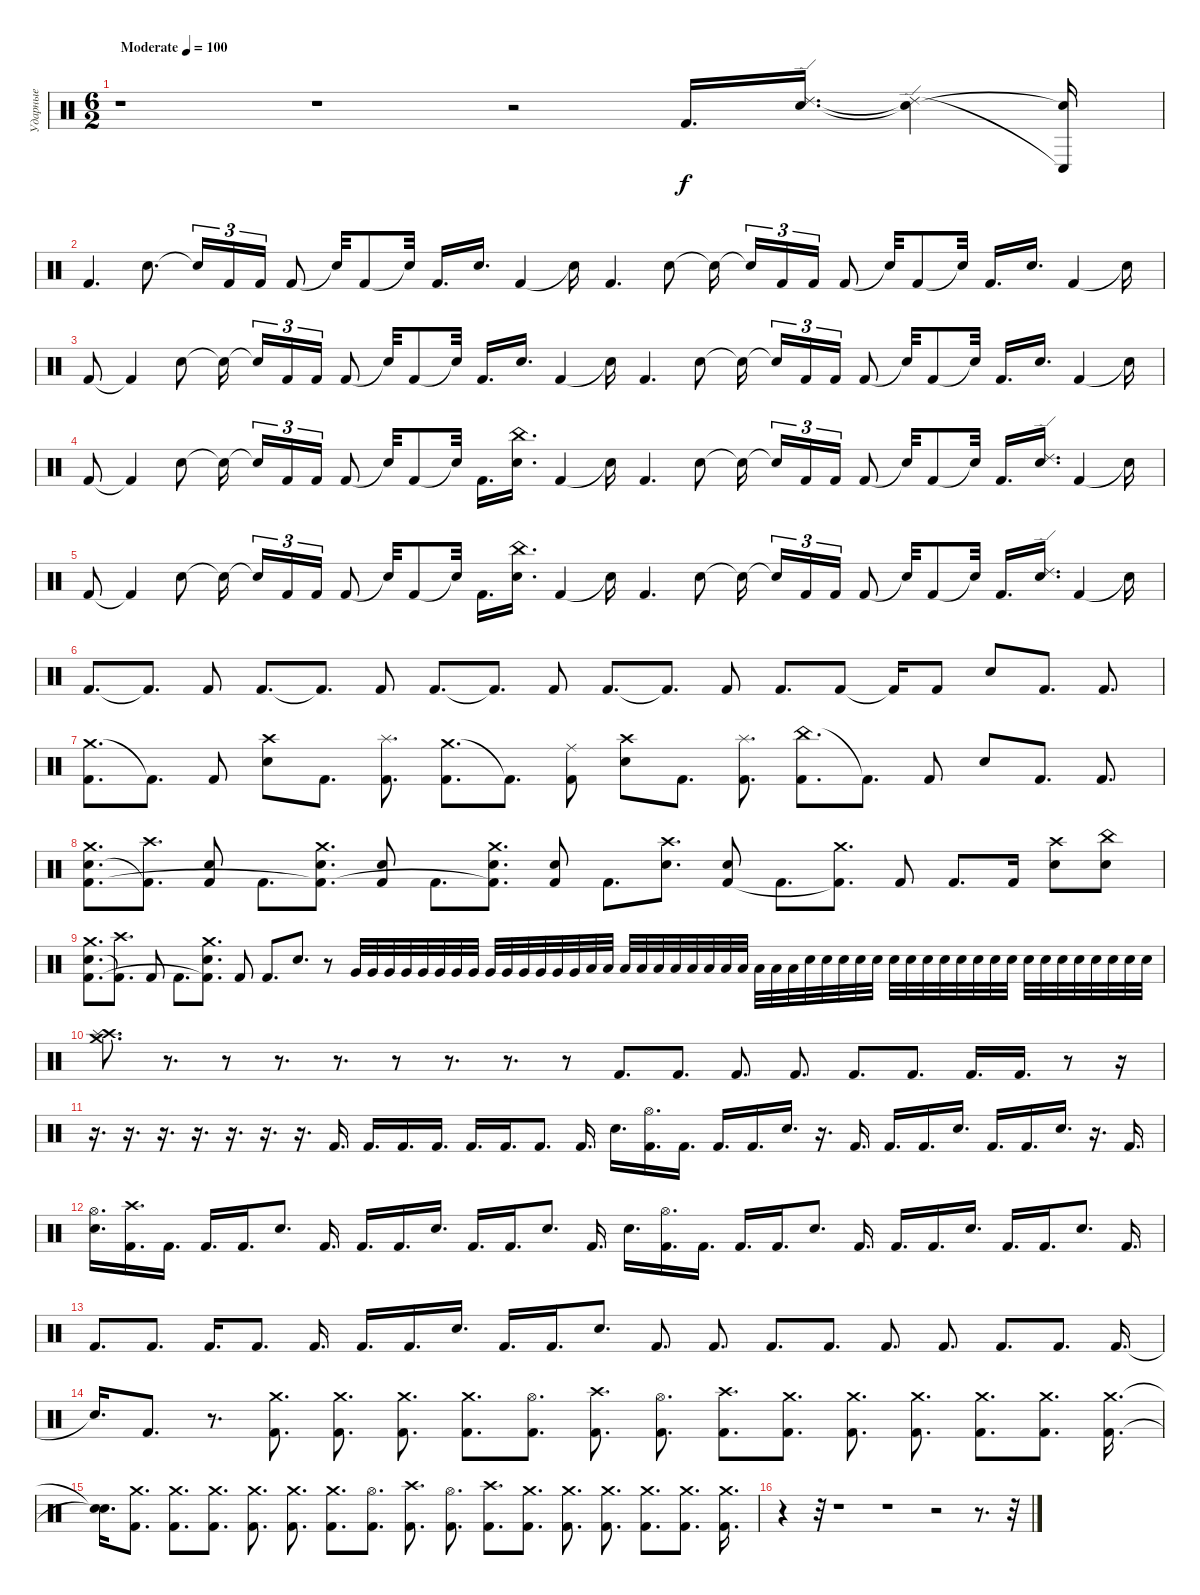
\track ("Ударные" "Ударные") {instrument percussion}
\staff {score}
\articulation defaults
\ts (6 2)
\tempo (100 "Moderate")
\clef neutral
\ks c
r.1{dy f} r.1 r.2 "Kick (hit) 2".16{d} ("Ride (edge) 2" "Snare (hit) 2").16{d} ("Ride (edge) 2"{t} "Snare (hit)"{t}).4 ("Conga low (hit)"{t} "Snare (hit)"{t}).16 |
"Kick (hit) 2".4{d} "Snare (hit) 2".8{d} "Snare (hit)"{t}.16{tu (3 2)} "Kick (hit) 2".16{tu (3 2) beam merge} "Kick (hit) 2".16{tu (3 2)} "Kick (hit) 2".8 "Snare (hit)"{t}.32 "Kick (hit) 2".8 "Snare (hit)"{t}.32 "Kick (hit) 2".16{d} "Snare (hit) 2".16{d} "Kick (hit) 2".4 "Snare (hit)"{t}.16 "Kick (hit) 2".4{d} "Snare (hit) 2".8 "Snare (hit)"{t}.16{beam splitsecondary} "Snare (hit)"{t}.16{tu (3 2)} "Kick (hit) 2".16{tu (3 2) beam merge} "Kick (hit) 2".16{tu (3 2)} "Kick (hit) 2".8 "Snare (hit)"{t}.32 "Kick (hit) 2".8 "Snare (hit)"{t}.32 "Kick (hit) 2".16{d} "Snare (hit) 2".16{d} "Kick (hit) 2".4 "Snare (hit)"{t}.16 |
"Kick (hit) 2".8 "Kick (hit) 2"{t}.4 "Snare (hit) 2".8 "Snare (hit)"{t}.16{beam splitsecondary} "Snare (hit)"{t}.16{tu (3 2)} "Kick (hit) 2".16{tu (3 2) beam merge} "Kick (hit) 2".16{tu (3 2)} "Kick (hit) 2".8 "Snare (hit)"{t}.32 "Kick (hit) 2".8 "Snare (hit)"{t}.32 "Kick (hit) 2".16{d} "Snare (hit) 2".16{d} "Kick (hit) 2".4 "Snare (hit)"{t}.16 "Kick (hit) 2".4{d} "Snare (hit) 2".8 "Snare (hit)"{t}.16{beam splitsecondary} "Snare (hit)"{t}.16{tu (3 2)} "Kick (hit) 2".16{tu (3 2) beam merge} "Kick (hit) 2".16{tu (3 2)} "Kick (hit) 2".8 "Snare (hit)"{t}.32 "Kick (hit) 2".8 "Snare (hit)"{t}.32 "Kick (hit) 2".16{d} "Snare (hit) 2".16{d} "Kick (hit) 2".4 "Snare (hit)"{t}.16 |
"Kick (hit) 2".8 "Kick (hit) 2"{t}.4 "Snare (hit) 2".8 "Snare (hit)"{t}.16{beam splitsecondary} "Snare (hit)"{t}.16{tu (3 2)} "Kick (hit) 2".16{tu (3 2) beam merge} "Kick (hit) 2".16{tu (3 2)} "Kick (hit) 2".8 "Snare (hit)"{t}.32 "Kick (hit) 2".8 "Snare (hit)"{t}.32 "Kick (hit) 2".16{d} ("China (hit)" "Snare (hit) 2").16{d} "Kick (hit) 2".4 "Snare (hit)"{t}.16 "Kick (hit) 2".4{d} "Snare (hit) 2".8 "Snare (hit)"{t}.16{beam splitsecondary} "Snare (hit)"{t}.16{tu (3 2)} "Kick (hit) 2".16{tu (3 2) beam merge} "Kick (hit) 2".16{tu (3 2)} "Kick (hit) 2".8 "Snare (hit)"{t}.32 "Kick (hit) 2".8 "Snare (hit)"{t}.32 "Kick (hit) 2".16{d} ("Ride (edge) 2" "Snare (hit) 2").16{d} "Kick (hit) 2".4 "Snare (hit)"{t}.16 |
"Kick (hit) 2".8 "Kick (hit) 2"{t}.4 "Snare (hit) 2".8 "Snare (hit)"{t}.16{beam splitsecondary} "Snare (hit)"{t}.16{tu (3 2)} "Kick (hit) 2".16{tu (3 2) beam merge} "Kick (hit) 2".16{tu (3 2)} "Kick (hit) 2".8 "Snare (hit)"{t}.32 "Kick (hit) 2".8 "Snare (hit)"{t}.32 "Kick (hit) 2".16{d} ("China (hit)" "Snare (hit) 2").16{d} "Kick (hit) 2".4 "Snare (hit)"{t}.16 "Kick (hit) 2".4{d} "Snare (hit) 2".8 "Snare (hit)"{t}.16{beam splitsecondary} "Snare (hit)"{t}.16{tu (3 2)} "Kick (hit) 2".16{tu (3 2) beam merge} "Kick (hit) 2".16{tu (3 2)} "Kick (hit) 2".8 "Snare (hit)"{t}.32 "Kick (hit) 2".8 "Snare (hit)"{t}.32 "Kick (hit) 2".16{d} ("Ride (edge) 2" "Snare (hit) 2").16{d} "Kick (hit) 2".4 "Snare (hit)"{t}.16 |
"Kick (hit) 2".8{d} "Kick (hit) 2"{t}.8{d} "Kick (hit) 2".8 "Kick (hit) 2".8{d} "Kick (hit) 2"{t}.8{d} "Kick (hit) 2".8 "Kick (hit) 2".8{d} "Kick (hit) 2"{t}.8{d} "Kick (hit) 2".8 "Kick (hit) 2".8{d} "Kick (hit) 2"{t}.8{d} "Kick (hit) 2".8 "Kick (hit) 2".8{d} "Kick (hit) 2".8 "Kick (hit) 2"{t}.16 "Kick (hit) 2".8 "Snare (hit) 2".8 "Kick (hit) 2".8{d} "Kick (hit) 2".8{d} |
("Crash medium (hit)" "Kick (hit) 2").8{d} "Kick (hit) 2"{t}.8{d} "Kick (hit) 2".8 ("Crash high (hit)" "Snare (hit) 2").8 "Kick (hit) 2".8{d} ("Splash (hit)" "Kick (hit) 2").8{d} ("Crash medium (hit)" "Kick (hit) 2").8{d} "Kick (hit) 2"{t}.8{d} ("Ride (middle)" "Kick (hit) 2").8 ("Crash high (hit)" "Snare (hit) 2").8 "Kick (hit) 2".8{d} ("Splash (hit)" "Kick (hit) 2").8{d} ("China (hit)" "Kick (hit) 2").8{d} "Kick (hit) 2"{t}.8{d} "Kick (hit) 2".8 "Snare (hit) 2".8 "Kick (hit) 2".8{d} "Kick (hit) 2".8{d} |
("Crash medium (hit)" "Snare (hit) 2" "Kick (hit) 2").8{d} ("Crash high (hit)" "Kick (hit) 2"{t}).8{d} ("Snare (hit) 2" "Kick (hit) 2").8 "Kick (hit) 2".8{d} ("Crash medium (hit)" "Snare (hit) 2" "Kick (hit) 2"{t}).8{d} ("Snare (hit) 2" "Kick (hit) 2").8 "Kick (hit) 2".8{d} ("Crash medium (hit)" "Snare (hit) 2" "Kick (hit) 2"{t}).8{d} ("Snare (hit) 2" "Kick (hit) 2").8 "Kick (hit) 2".8{d} ("Crash high (hit)" "Snare (hit) 2").8{d} ("Snare (hit) 2" "Kick (hit) 2").8 "Kick (hit) 2".8{d} ("Crash medium (hit)" "Kick (hit) 2"{t}).8{d} "Kick (hit) 2".8 "Kick (hit) 2".8{d} "Kick (hit) 2".16 ("Crash high (hit)" "Electric Snare (hit)").8 ("China (hit)" "Electric Snare (hit)").8 |
("Crash medium (hit)" "Snare (hit) 2" "Kick (hit) 2").8{d} ("Crash high (hit)" "Kick (hit) 2"{t}).8{d} "Kick (hit) 2".8 "Kick (hit) 2".8{d} ("Crash medium (hit)" "Snare (hit) 2" "Kick (hit) 2"{t}).8{d} "Kick (hit) 2".8 "Kick (hit) 2".8{d} "Snare (hit) 2".8{d} r.8 "Very Low Tom (hit)".32 "Very Low Tom (hit)".32 "Very Low Tom (hit)".32 "Very Low Tom (hit)".32 "Very Low Tom (hit)".32 "Very Low Tom (hit)".32 "Very Low Tom (hit)".32 "Very Low Tom (hit)".32 "Very Low Tom (hit)".32 "Very Low Tom (hit)".32 "Very Low Tom (hit)".32 "Very Low Tom (hit)".32 "Very Low Tom (hit)".32 "Very Low Tom (hit)".32 "Low Floor Tom (hit)".32 "Low Floor Tom (hit)".32 "Low Floor Tom (hit)".32 "Low Floor Tom (hit)".32 "Low Floor Tom (hit)".32 "Low Floor Tom (hit)".32 "Low Floor Tom (hit)".32 "Low Floor Tom (hit)".32 "Low Floor Tom (hit)".32 "Low Floor Tom (hit)".32 "Low Floor Tom (hit)".32 "Low Floor Tom (hit)".32 "Low Floor Tom (hit)".32 "Electric Snare (hit)".32 "Electric Snare (hit)".32 "Electric Snare (hit)".32 "Electric Snare (hit)".32 "Electric Snare (hit)".32 "Electric Snare (hit)".32 "Electric Snare (hit)".32 "Electric Snare (hit)".32 "Electric Snare (hit)".32 "Electric Snare (hit)".32 "Electric Snare (hit)".32 "Electric Snare (hit)".32 "Electric Snare (hit)".32 "Electric Snare (hit)".32 "Electric Snare (hit)".32 "Electric Snare (hit)".32 "Electric Snare (hit)".32 "Electric Snare (hit)".32 "Electric Snare (hit)".32 "Electric Snare (hit)".32 "Electric Snare (hit)".32 |
("Crash high (hit)" "Crash medium (hit)" "Splash (hit)").8{d} r.8{d} r.8 r.8{d} r.8{d} r.8 r.8{d} r.8{d} r.8 "Kick (hit) 2".8{d} "Kick (hit) 2".8{d} "Kick (hit) 2".8{d} "Kick (hit) 2".8{d} "Kick (hit) 2".8{d} "Kick (hit) 2".8{d} "Kick (hit) 2".16{d} "Kick (hit) 2".16{d} r.8 r.16 |
r.16{d} r.16{d} r.16{d} r.16{d} r.16{d} r.16{d} r.16{d} "Kick (hit) 2".16{d} "Kick (hit) 2".16{d} "Kick (hit) 2".16{d} "Kick (hit) 2".16{d} "Kick (hit) 2".16{d} "Kick (hit) 2".16{d} "Kick (hit) 2".8{d} "Kick (hit) 2".16{d} "Snare (hit) 2".16{d} ("Hi-Hat (open)" "Kick (hit) 2").16{d} "Kick (hit) 2".16{d} "Kick (hit) 2".16{d} "Kick (hit) 2".16{d} "Snare (hit) 2".16{d} r.16{d} "Kick (hit) 2".16{d} "Kick (hit) 2".16{d} "Kick (hit) 2".16{d} "Snare (hit) 2".16{d} "Kick (hit) 2".16{d} "Kick (hit) 2".16{d} "Snare (hit) 2".16{d} r.16{d} "Kick (hit) 2".16{d} |
("Hi-Hat (open)" "Snare (hit) 2").16{d} ("Crash high (hit)" "Kick (hit) 2").16{d} "Kick (hit) 2".16{d} "Kick (hit) 2".16{d} "Kick (hit) 2".16{d} "Snare (hit) 2".8{d} "Kick (hit) 2".16{d} "Kick (hit) 2".16{d} "Kick (hit) 2".16{d} "Snare (hit) 2".16{d} "Kick (hit) 2".16{d} "Kick (hit) 2".16{d} "Snare (hit) 2".8{d} "Kick (hit) 2".16{d} "Snare (hit) 2".16{d} ("Hi-Hat (open)" "Kick (hit) 2").16{d} "Kick (hit) 2".16{d} "Kick (hit) 2".16{d} "Kick (hit) 2".16{d} "Snare (hit) 2".8{d} "Kick (hit) 2".16{d} "Kick (hit) 2".16{d} "Kick (hit) 2".16{d} "Snare (hit) 2".16{d} "Kick (hit) 2".16{d} "Kick (hit) 2".16{d} "Snare (hit) 2".8{d} "Kick (hit) 2".16{d} |
"Kick (hit) 2".8{d} "Kick (hit) 2".8{d} "Kick (hit) 2".16{d} "Kick (hit) 2".8{d} "Kick (hit) 2".16{d} "Kick (hit) 2".16{d} "Kick (hit) 2".16{d} "Snare (hit) 2".16{d} "Kick (hit) 2".16{d} "Kick (hit) 2".16{d} "Snare (hit) 2".8{d} "Kick (hit) 2".8{d} "Kick (hit) 2".8{d} "Kick (hit) 2".8{d} "Kick (hit) 2".8{d} "Kick (hit) 2".8{d} "Kick (hit) 2".8{d} "Kick (hit) 2".8{d} "Kick (hit) 2".8{d} "Kick (hit) 2".16{d} |
"Snare (hit)"{t}.16{d} "Kick (hit) 2".8{d} r.8{d} ("Crash medium (hit)" "Kick (hit) 2").8{d} ("Crash medium (hit)" "Kick (hit) 2").8{d} ("Crash medium (hit)" "Kick (hit) 2").8{d} ("Crash medium (hit)" "Kick (hit) 2").8{d} ("Hi-Hat (open)" "Kick (hit) 2").8{d} ("Crash high (hit)" "Kick (hit) 2").8{d} ("Hi-Hat (open)" "Kick (hit) 2").8{d} ("Crash high (hit)" "Kick (hit) 2").8{d} ("Crash medium (hit)" "Kick (hit) 2").8{d} ("Crash medium (hit)" "Kick (hit) 2").8{d} ("Crash medium (hit)" "Kick (hit) 2").8{d} ("Crash medium (hit)" "Kick (hit) 2").8{d} ("Crash medium (hit)" "Kick (hit) 2").8{d} ("Crash medium (hit)" "Kick (hit) 2").16{d} |
("Snare (hit)"{t} "Snare (hit)"{t}).16{d} ("Crash medium (hit)" "Kick (hit) 2").8{d} ("Crash medium (hit)" "Kick (hit) 2").8{d} ("Crash medium (hit)" "Kick (hit) 2").8{d} ("Crash medium (hit)" "Kick (hit) 2").8{d} ("Crash medium (hit)" "Kick (hit) 2").8{d} ("Crash medium (hit)" "Kick (hit) 2").8{d} ("Hi-Hat (open)" "Kick (hit) 2").8{d} ("Crash high (hit)" "Kick (hit) 2").8{d} ("Hi-Hat (open)" "Kick (hit) 2").8{d} ("Crash high (hit)" "Kick (hit) 2").8{d} ("Crash medium (hit)" "Kick (hit) 2").8{d} ("Crash medium (hit)" "Kick (hit) 2").8{d} ("Crash medium (hit)" "Kick (hit) 2").8{d} ("Crash medium (hit)" "Kick (hit) 2").8{d} ("Crash medium (hit)" "Kick (hit) 2").8{d} ("Crash medium (hit)" "Kick (hit) 2").16{d} |
r.4 r.32 r.1 r.1 r.2 r.8{d} r.32
